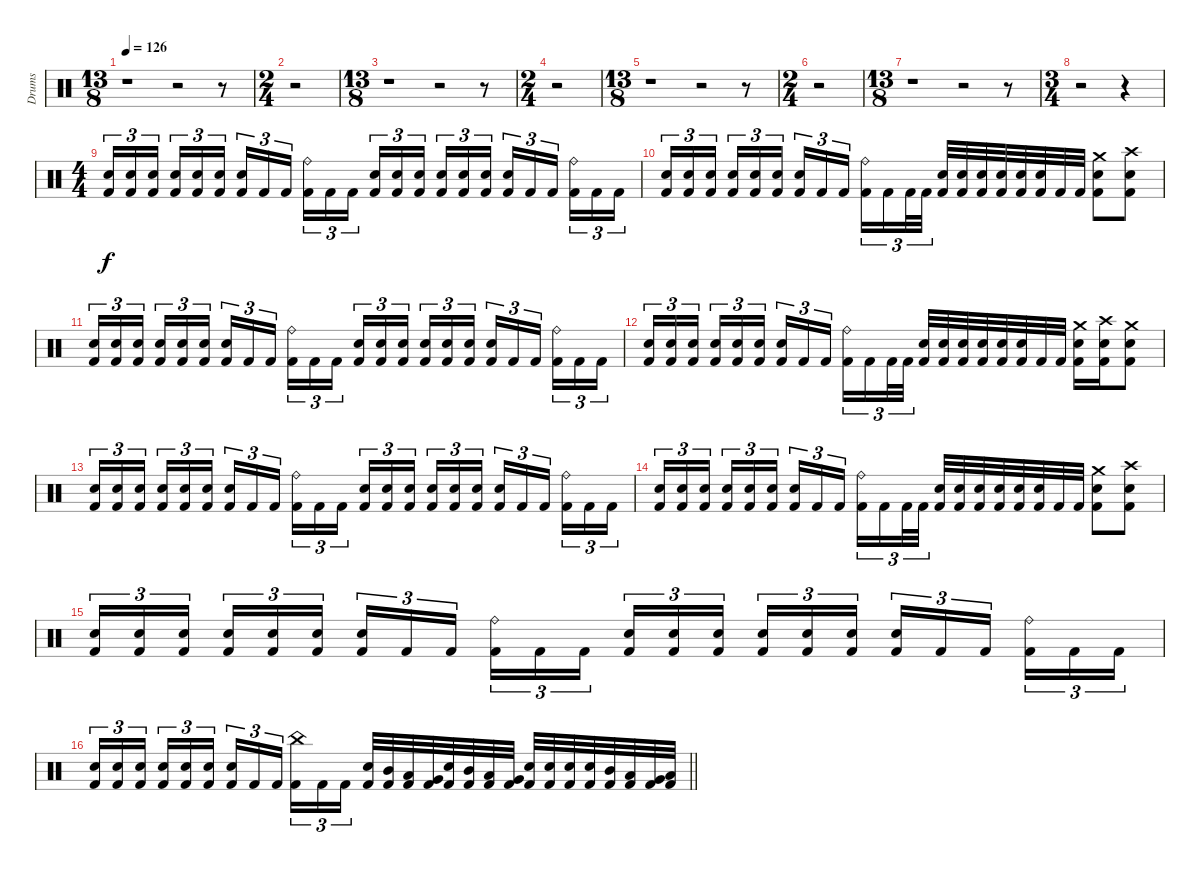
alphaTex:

\track ("Drums" "Drums") {instrument percussion}
\staff {score}
\articulation defaults
\ts (13 8)
\tempo 126
\clef neutral
\ks c
r.1{dy f} r.2 r.8 |
\ts (2 4)
r.2 |
\ts (13 8)
r.1 r.2 r.8 |
\ts (2 4)
r.2 |
\ts (13 8)
r.1 r.2 r.8 |
\ts (2 4)
r.2 |
\ts (13 8)
r.1 r.2 r.8 |
\ts (3 4)
r.2 r.4 |
\ts (4 4)
("Electric Snare (hit)" "Kick (hit) 2").16{tu (3 2)} ("Electric Snare (hit)" "Kick (hit) 2").16{tu (3 2)} ("Electric Snare (hit)" "Kick (hit) 2").16{tu (3 2) beam splitsecondary} ("Electric Snare (hit)" "Kick (hit) 2").16{tu (3 2)} ("Electric Snare (hit)" "Kick (hit) 2").16{tu (3 2)} ("Electric Snare (hit)" "Kick (hit) 2").16{tu (3 2)} ("Electric Snare (hit)" "Kick (hit) 2").16{tu (3 2)} "Kick (hit) 2".16{tu (3 2)} "Kick (hit) 2".16{tu (3 2) beam splitsecondary} ("Ride (bell)" "Kick (hit) 2").16{tu (3 2)} "Kick (hit) 2".16{tu (3 2)} "Kick (hit) 2".16{tu (3 2)} ("Electric Snare (hit)" "Kick (hit) 2").16{tu (3 2)} ("Electric Snare (hit)" "Kick (hit) 2").16{tu (3 2)} ("Electric Snare (hit)" "Kick (hit) 2").16{tu (3 2) beam splitsecondary} ("Electric Snare (hit)" "Kick (hit) 2").16{tu (3 2)} ("Electric Snare (hit)" "Kick (hit) 2").16{tu (3 2)} ("Electric Snare (hit)" "Kick (hit) 2").16{tu (3 2)} ("Electric Snare (hit)" "Kick (hit) 2").16{tu (3 2)} "Kick (hit) 2".16{tu (3 2)} "Kick (hit) 2".16{tu (3 2) beam splitsecondary} ("Ride (bell)" "Kick (hit) 2").16{tu (3 2)} "Kick (hit) 2".16{tu (3 2)} "Kick (hit) 2".16{tu (3 2)} |
("Electric Snare (hit)" "Kick (hit) 2").16{tu (3 2)} ("Electric Snare (hit)" "Kick (hit) 2").16{tu (3 2)} ("Electric Snare (hit)" "Kick (hit) 2").16{tu (3 2) beam splitsecondary} ("Electric Snare (hit)" "Kick (hit) 2").16{tu (3 2)} ("Electric Snare (hit)" "Kick (hit) 2").16{tu (3 2)} ("Electric Snare (hit)" "Kick (hit) 2").16{tu (3 2)} ("Electric Snare (hit)" "Kick (hit) 2").16{tu (3 2)} "Kick (hit) 2".16{tu (3 2)} "Kick (hit) 2".16{tu (3 2) beam splitsecondary} ("Ride (bell)" "Kick (hit) 2").16{tu (3 2)} "Kick (hit) 2".16{tu (3 2)} "Kick (hit) 2".32{tu (3 2)} "Kick (hit) 2".32{tu (3 2)} ("Electric Snare (hit)" "Kick (hit) 2").32 ("Electric Snare (hit)" "Kick (hit) 2").32 ("Electric Snare (hit)" "Kick (hit) 2").32 ("Electric Snare (hit)" "Kick (hit) 2").32 ("Electric Snare (hit)" "Kick (hit) 2").32 ("Electric Snare (hit)" "Kick (hit) 2").32 "Kick (hit) 2".32 "Kick (hit) 2".32 ("Crash medium (hit)" "Electric Snare (hit)" "Kick (hit) 2").8 ("Crash high (hit)" "Electric Snare (hit)" "Kick (hit) 2").8 |
("Electric Snare (hit)" "Kick (hit) 2").16{tu (3 2)} ("Electric Snare (hit)" "Kick (hit) 2").16{tu (3 2)} ("Electric Snare (hit)" "Kick (hit) 2").16{tu (3 2) beam splitsecondary} ("Electric Snare (hit)" "Kick (hit) 2").16{tu (3 2)} ("Electric Snare (hit)" "Kick (hit) 2").16{tu (3 2)} ("Electric Snare (hit)" "Kick (hit) 2").16{tu (3 2)} ("Electric Snare (hit)" "Kick (hit) 2").16{tu (3 2)} "Kick (hit) 2".16{tu (3 2)} "Kick (hit) 2".16{tu (3 2) beam splitsecondary} ("Ride (bell)" "Kick (hit) 2").16{tu (3 2)} "Kick (hit) 2".16{tu (3 2)} "Kick (hit) 2".16{tu (3 2)} ("Electric Snare (hit)" "Kick (hit) 2").16{tu (3 2)} ("Electric Snare (hit)" "Kick (hit) 2").16{tu (3 2)} ("Electric Snare (hit)" "Kick (hit) 2").16{tu (3 2) beam splitsecondary} ("Electric Snare (hit)" "Kick (hit) 2").16{tu (3 2)} ("Electric Snare (hit)" "Kick (hit) 2").16{tu (3 2)} ("Electric Snare (hit)" "Kick (hit) 2").16{tu (3 2)} ("Electric Snare (hit)" "Kick (hit) 2").16{tu (3 2)} "Kick (hit) 2".16{tu (3 2)} "Kick (hit) 2".16{tu (3 2) beam splitsecondary} ("Ride (bell)" "Kick (hit) 2").16{tu (3 2)} "Kick (hit) 2".16{tu (3 2)} "Kick (hit) 2".16{tu (3 2)} |
("Electric Snare (hit)" "Kick (hit) 2").16{tu (3 2)} ("Electric Snare (hit)" "Kick (hit) 2").16{tu (3 2)} ("Electric Snare (hit)" "Kick (hit) 2").16{tu (3 2) beam splitsecondary} ("Electric Snare (hit)" "Kick (hit) 2").16{tu (3 2)} ("Electric Snare (hit)" "Kick (hit) 2").16{tu (3 2)} ("Electric Snare (hit)" "Kick (hit) 2").16{tu (3 2)} ("Electric Snare (hit)" "Kick (hit) 2").16{tu (3 2)} "Kick (hit) 2".16{tu (3 2)} "Kick (hit) 2".16{tu (3 2) beam splitsecondary} ("Ride (bell)" "Kick (hit) 2").16{tu (3 2)} "Kick (hit) 2".16{tu (3 2)} "Kick (hit) 2".32{tu (3 2)} "Kick (hit) 2".32{tu (3 2)} ("Electric Snare (hit)" "Kick (hit) 2").32 ("Electric Snare (hit)" "Kick (hit) 2").32 ("Electric Snare (hit)" "Kick (hit) 2").32 ("Electric Snare (hit)" "Kick (hit) 2").32 ("Electric Snare (hit)" "Kick (hit) 2").32 ("Electric Snare (hit)" "Kick (hit) 2").32 "Kick (hit) 2".32 "Kick (hit) 2".32 ("Crash medium (hit)" "Electric Snare (hit)" "Kick (hit) 2").16 ("Crash high (hit)" "Electric Snare (hit)" "Kick (hit) 2").16 ("Crash medium (hit)" "Electric Snare (hit)" "Kick (hit) 2").8 |
("Electric Snare (hit)" "Kick (hit) 2").16{tu (3 2)} ("Electric Snare (hit)" "Kick (hit) 2").16{tu (3 2)} ("Electric Snare (hit)" "Kick (hit) 2").16{tu (3 2) beam splitsecondary} ("Electric Snare (hit)" "Kick (hit) 2").16{tu (3 2)} ("Electric Snare (hit)" "Kick (hit) 2").16{tu (3 2)} ("Electric Snare (hit)" "Kick (hit) 2").16{tu (3 2)} ("Electric Snare (hit)" "Kick (hit) 2").16{tu (3 2)} "Kick (hit) 2".16{tu (3 2)} "Kick (hit) 2".16{tu (3 2) beam splitsecondary} ("Ride (bell)" "Kick (hit) 2").16{tu (3 2)} "Kick (hit) 2".16{tu (3 2)} "Kick (hit) 2".16{tu (3 2)} ("Electric Snare (hit)" "Kick (hit) 2").16{tu (3 2)} ("Electric Snare (hit)" "Kick (hit) 2").16{tu (3 2)} ("Electric Snare (hit)" "Kick (hit) 2").16{tu (3 2) beam splitsecondary} ("Electric Snare (hit)" "Kick (hit) 2").16{tu (3 2)} ("Electric Snare (hit)" "Kick (hit) 2").16{tu (3 2)} ("Electric Snare (hit)" "Kick (hit) 2").16{tu (3 2)} ("Electric Snare (hit)" "Kick (hit) 2").16{tu (3 2)} "Kick (hit) 2".16{tu (3 2)} "Kick (hit) 2".16{tu (3 2) beam splitsecondary} ("Ride (bell)" "Kick (hit) 2").16{tu (3 2)} "Kick (hit) 2".16{tu (3 2)} "Kick (hit) 2".16{tu (3 2)} |
("Electric Snare (hit)" "Kick (hit) 2").16{tu (3 2)} ("Electric Snare (hit)" "Kick (hit) 2").16{tu (3 2)} ("Electric Snare (hit)" "Kick (hit) 2").16{tu (3 2) beam splitsecondary} ("Electric Snare (hit)" "Kick (hit) 2").16{tu (3 2)} ("Electric Snare (hit)" "Kick (hit) 2").16{tu (3 2)} ("Electric Snare (hit)" "Kick (hit) 2").16{tu (3 2)} ("Electric Snare (hit)" "Kick (hit) 2").16{tu (3 2)} "Kick (hit) 2".16{tu (3 2)} "Kick (hit) 2".16{tu (3 2) beam splitsecondary} ("Ride (bell)" "Kick (hit) 2").16{tu (3 2)} "Kick (hit) 2".16{tu (3 2)} "Kick (hit) 2".32{tu (3 2)} "Kick (hit) 2".32{tu (3 2)} ("Electric Snare (hit)" "Kick (hit) 2").32 ("Electric Snare (hit)" "Kick (hit) 2").32 ("Electric Snare (hit)" "Kick (hit) 2").32 ("Electric Snare (hit)" "Kick (hit) 2").32 ("Electric Snare (hit)" "Kick (hit) 2").32 ("Electric Snare (hit)" "Kick (hit) 2").32 "Kick (hit) 2".32 "Kick (hit) 2".32 ("Crash medium (hit)" "Electric Snare (hit)" "Kick (hit) 2").8 ("Crash high (hit)" "Electric Snare (hit)" "Kick (hit) 2").8 |
("Electric Snare (hit)" "Kick (hit) 2").16{tu (3 2)} ("Electric Snare (hit)" "Kick (hit) 2").16{tu (3 2)} ("Electric Snare (hit)" "Kick (hit) 2").16{tu (3 2) beam splitsecondary} ("Electric Snare (hit)" "Kick (hit) 2").16{tu (3 2)} ("Electric Snare (hit)" "Kick (hit) 2").16{tu (3 2)} ("Electric Snare (hit)" "Kick (hit) 2").16{tu (3 2)} ("Electric Snare (hit)" "Kick (hit) 2").16{tu (3 2)} "Kick (hit) 2".16{tu (3 2)} "Kick (hit) 2".16{tu (3 2) beam splitsecondary} ("Ride (bell)" "Kick (hit) 2").16{tu (3 2)} "Kick (hit) 2".16{tu (3 2)} "Kick (hit) 2".16{tu (3 2)} ("Electric Snare (hit)" "Kick (hit) 2").16{tu (3 2)} ("Electric Snare (hit)" "Kick (hit) 2").16{tu (3 2)} ("Electric Snare (hit)" "Kick (hit) 2").16{tu (3 2) beam splitsecondary} ("Electric Snare (hit)" "Kick (hit) 2").16{tu (3 2)} ("Electric Snare (hit)" "Kick (hit) 2").16{tu (3 2)} ("Electric Snare (hit)" "Kick (hit) 2").16{tu (3 2)} ("Electric Snare (hit)" "Kick (hit) 2").16{tu (3 2)} "Kick (hit) 2".16{tu (3 2)} "Kick (hit) 2".16{tu (3 2) beam splitsecondary} ("Ride (bell)" "Kick (hit) 2").16{tu (3 2)} "Kick (hit) 2".16{tu (3 2)} "Kick (hit) 2".16{tu (3 2)} |
\barLineRight lightlight
("Electric Snare (hit)" "Kick (hit) 2").16{tu (3 2)} ("Electric Snare (hit)" "Kick (hit) 2").16{tu (3 2)} ("Electric Snare (hit)" "Kick (hit) 2").16{tu (3 2) beam splitsecondary} ("Electric Snare (hit)" "Kick (hit) 2").16{tu (3 2)} ("Electric Snare (hit)" "Kick (hit) 2").16{tu (3 2)} ("Electric Snare (hit)" "Kick (hit) 2").16{tu (3 2)} ("Electric Snare (hit)" "Kick (hit) 2").16{tu (3 2)} "Kick (hit) 2".16{tu (3 2)} "Kick (hit) 2".16{tu (3 2) beam splitsecondary} ("China (hit)" "Kick (hit) 2").16{tu (3 2)} "Kick (hit) 2".16{tu (3 2)} "Kick (hit) 2".16{tu (3 2)} ("Electric Snare (hit)" "Kick (hit) 2").32 ("Mid Tom (hit)" "Kick (hit) 2").32 ("Low Tom (hit)" "Kick (hit) 2").32 ("Very Low Tom (hit)" "Kick (hit) 2").32 ("Electric Snare (hit)" "Kick (hit) 2").32 ("Mid Tom (hit)" "Kick (hit) 2").32 ("Low Tom (hit)" "Kick (hit) 2").32 ("Very Low Tom (hit)" "Kick (hit) 2").32 ("Electric Snare (hit)" "Kick (hit) 2").32 ("Electric Snare (hit)" "Kick (hit) 2").32 ("Electric Snare (hit)" "Kick (hit) 2").32 ("Electric Snare (hit)" "Kick (hit) 2").32 ("Mid Tom (hit)" "Kick (hit) 2").32 ("Low Tom (hit)" "Kick (hit) 2").32 ("Very Low Tom (hit)" "Kick (hit) 2").32 ("Low Floor Tom (hit)" "Kick (hit) 2").32
